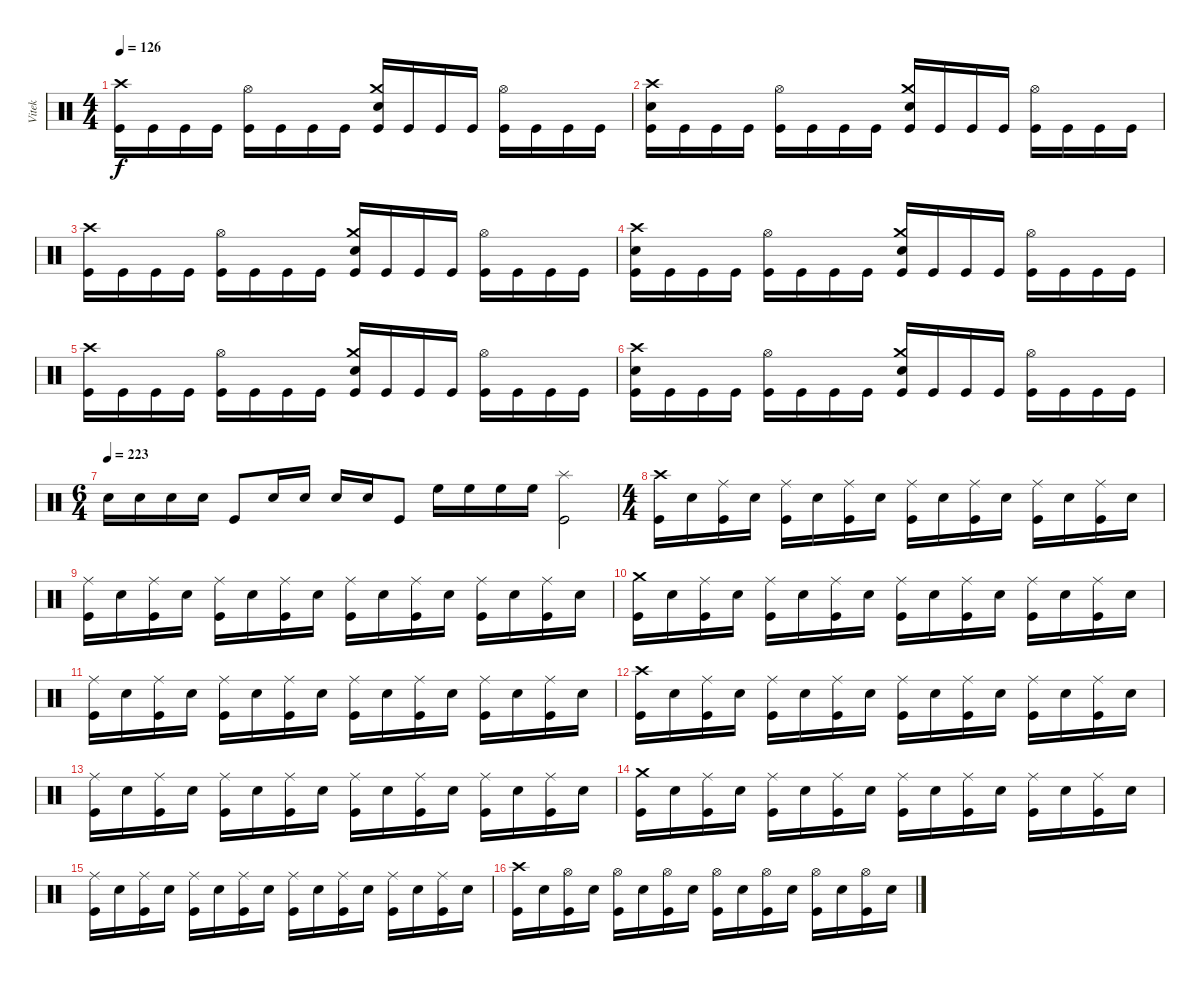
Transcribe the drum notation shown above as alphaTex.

\track ("Vitek" "Vitek") {instrument percussion}
\staff {score}
\articulation defaults
\ts (4 4)
\tempo 126
\clef neutral
\ks c
("Crash high (hit)" "Kick (hit)").16{dy f} "Kick (hit)".16 "Kick (hit)".16 "Kick (hit)".16 ("Hi-Hat (open)" "Kick (hit)").16 "Kick (hit)".16 "Kick (hit)".16 "Kick (hit)".16 ("Crash medium (hit)" "Snare (hit) 2" "Kick (hit)").16 "Kick (hit)".16 "Kick (hit)".16 "Kick (hit)".16 ("Hi-Hat (open)" "Kick (hit)").16 "Kick (hit)".16 "Kick (hit)".16 "Kick (hit)".16 |
("Crash high (hit)" "Snare (hit) 2" "Kick (hit)").16 "Kick (hit)".16 "Kick (hit)".16 "Kick (hit)".16 ("Hi-Hat (open)" "Kick (hit)").16 "Kick (hit)".16 "Kick (hit)".16 "Kick (hit)".16 ("Crash medium (hit)" "Snare (hit) 2" "Kick (hit)").16 "Kick (hit)".16 "Kick (hit)".16 "Kick (hit)".16 ("Hi-Hat (open)" "Kick (hit)").16 "Kick (hit)".16 "Kick (hit)".16 "Kick (hit)".16 |
("Crash high (hit)" "Kick (hit)").16 "Kick (hit)".16 "Kick (hit)".16 "Kick (hit)".16 ("Hi-Hat (open)" "Kick (hit)").16 "Kick (hit)".16 "Kick (hit)".16 "Kick (hit)".16 ("Crash medium (hit)" "Snare (hit) 2" "Kick (hit)").16 "Kick (hit)".16 "Kick (hit)".16 "Kick (hit)".16 ("Hi-Hat (open)" "Kick (hit)").16 "Kick (hit)".16 "Kick (hit)".16 "Kick (hit)".16 |
("Crash high (hit)" "Snare (hit) 2" "Kick (hit)").16 "Kick (hit)".16 "Kick (hit)".16 "Kick (hit)".16 ("Hi-Hat (open)" "Kick (hit)").16 "Kick (hit)".16 "Kick (hit)".16 "Kick (hit)".16 ("Crash medium (hit)" "Snare (hit) 2" "Kick (hit)").16 "Kick (hit)".16 "Kick (hit)".16 "Kick (hit)".16 ("Hi-Hat (open)" "Kick (hit)").16 "Kick (hit)".16 "Kick (hit)".16 "Kick (hit)".16 |
("Crash high (hit)" "Kick (hit)").16 "Kick (hit)".16 "Kick (hit)".16 "Kick (hit)".16 ("Hi-Hat (open)" "Kick (hit)").16 "Kick (hit)".16 "Kick (hit)".16 "Kick (hit)".16 ("Crash medium (hit)" "Snare (hit) 2" "Kick (hit)").16 "Kick (hit)".16 "Kick (hit)".16 "Kick (hit)".16 ("Hi-Hat (open)" "Kick (hit)").16 "Kick (hit)".16 "Kick (hit)".16 "Kick (hit)".16 |
("Crash high (hit)" "Snare (hit) 2" "Kick (hit)").16 "Kick (hit)".16 "Kick (hit)".16 "Kick (hit)".16 ("Hi-Hat (open)" "Kick (hit)").16 "Kick (hit)".16 "Kick (hit)".16 "Kick (hit)".16 ("Crash medium (hit)" "Snare (hit) 2" "Kick (hit)").16 "Kick (hit)".16 "Kick (hit)".16 "Kick (hit)".16 ("Hi-Hat (open)" "Kick (hit)").16 "Kick (hit)".16 "Kick (hit)".16 "Kick (hit)".16 |
\ts (6 4)
\tempo (223)
"Snare (hit) 2".16 "Snare (hit) 2".16 "Snare (hit) 2".16 "Snare (hit) 2".16 "Kick (hit)".8 "Snare (hit) 2".16 "Snare (hit) 2".16 "Snare (hit) 2".16 "Snare (hit) 2".16 "Kick (hit)".8 "High Floor Tom (hit)".16 "High Floor Tom (hit)".16 "High Floor Tom (hit)".16 "High Floor Tom (hit)".16 ("Splash (hit)" "Kick (hit)").2 |
\ts (4 4)
("Crash high (hit)" "Kick (hit)").16 "Snare (hit) 2".16 ("Ride (middle)" "Kick (hit)").16 "Snare (hit) 2".16 ("Ride (middle)" "Kick (hit)").16 "Snare (hit) 2".16 ("Ride (middle)" "Kick (hit)").16 "Snare (hit) 2".16 ("Ride (middle)" "Kick (hit)").16 "Snare (hit) 2".16 ("Ride (middle)" "Kick (hit)").16 "Snare (hit) 2".16 ("Ride (middle)" "Kick (hit)").16 "Snare (hit) 2".16 ("Ride (middle)" "Kick (hit)").16 "Snare (hit) 2".16 |
("Ride (middle)" "Kick (hit)").16 "Snare (hit) 2".16 ("Ride (middle)" "Kick (hit)").16 "Snare (hit) 2".16 ("Ride (middle)" "Kick (hit)").16 "Snare (hit) 2".16 ("Ride (middle)" "Kick (hit)").16 "Snare (hit) 2".16 ("Ride (middle)" "Kick (hit)").16 "Snare (hit) 2".16 ("Ride (middle)" "Kick (hit)").16 "Snare (hit) 2".16 ("Ride (middle)" "Kick (hit)").16 "Snare (hit) 2".16 ("Ride (middle)" "Kick (hit)").16 "Snare (hit) 2".16 |
("Crash medium (hit)" "Kick (hit)").16 "Snare (hit) 2".16 ("Ride (middle)" "Kick (hit)").16 "Snare (hit) 2".16 ("Ride (middle)" "Kick (hit)").16 "Snare (hit) 2".16 ("Ride (middle)" "Kick (hit)").16 "Snare (hit) 2".16 ("Ride (middle)" "Kick (hit)").16 "Snare (hit) 2".16 ("Ride (middle)" "Kick (hit)").16 "Snare (hit) 2".16 ("Ride (middle)" "Kick (hit)").16 "Snare (hit) 2".16 ("Ride (middle)" "Kick (hit)").16 "Snare (hit) 2".16 |
("Ride (middle)" "Kick (hit)").16 "Snare (hit) 2".16 ("Ride (middle)" "Kick (hit)").16 "Snare (hit) 2".16 ("Ride (middle)" "Kick (hit)").16 "Snare (hit) 2".16 ("Ride (middle)" "Kick (hit)").16 "Snare (hit) 2".16 ("Ride (middle)" "Kick (hit)").16 "Snare (hit) 2".16 ("Ride (middle)" "Kick (hit)").16 "Snare (hit) 2".16 ("Ride (middle)" "Kick (hit)").16 "Snare (hit) 2".16 ("Ride (middle)" "Kick (hit)").16 "Snare (hit) 2".16 |
("Crash high (hit)" "Kick (hit)").16 "Snare (hit) 2".16 ("Ride (middle)" "Kick (hit)").16 "Snare (hit) 2".16 ("Ride (middle)" "Kick (hit)").16 "Snare (hit) 2".16 ("Ride (middle)" "Kick (hit)").16 "Snare (hit) 2".16 ("Ride (middle)" "Kick (hit)").16 "Snare (hit) 2".16 ("Ride (middle)" "Kick (hit)").16 "Snare (hit) 2".16 ("Ride (middle)" "Kick (hit)").16 "Snare (hit) 2".16 ("Ride (middle)" "Kick (hit)").16 "Snare (hit) 2".16 |
("Ride (middle)" "Kick (hit)").16 "Snare (hit) 2".16 ("Ride (middle)" "Kick (hit)").16 "Snare (hit) 2".16 ("Ride (middle)" "Kick (hit)").16 "Snare (hit) 2".16 ("Ride (middle)" "Kick (hit)").16 "Snare (hit) 2".16 ("Ride (middle)" "Kick (hit)").16 "Snare (hit) 2".16 ("Ride (middle)" "Kick (hit)").16 "Snare (hit) 2".16 ("Ride (middle)" "Kick (hit)").16 "Snare (hit) 2".16 ("Ride (middle)" "Kick (hit)").16 "Snare (hit) 2".16 |
("Crash medium (hit)" "Kick (hit)").16 "Snare (hit) 2".16 ("Ride (middle)" "Kick (hit)").16 "Snare (hit) 2".16 ("Ride (middle)" "Kick (hit)").16 "Snare (hit) 2".16 ("Ride (middle)" "Kick (hit)").16 "Snare (hit) 2".16 ("Ride (middle)" "Kick (hit)").16 "Snare (hit) 2".16 ("Ride (middle)" "Kick (hit)").16 "Snare (hit) 2".16 ("Ride (middle)" "Kick (hit)").16 "Snare (hit) 2".16 ("Ride (middle)" "Kick (hit)").16 "Snare (hit) 2".16 |
("Ride (middle)" "Kick (hit)").16 "Snare (hit) 2".16 ("Ride (middle)" "Kick (hit)").16 "Snare (hit) 2".16 ("Ride (middle)" "Kick (hit)").16 "Snare (hit) 2".16 ("Ride (middle)" "Kick (hit)").16 "Snare (hit) 2".16 ("Ride (middle)" "Kick (hit)").16 "Snare (hit) 2".16 ("Ride (middle)" "Kick (hit)").16 "Snare (hit) 2".16 ("Ride (middle)" "Kick (hit)").16 "Snare (hit) 2".16 ("Ride (middle)" "Kick (hit)").16 "Snare (hit) 2".16 |
("Crash high (hit)" "Kick (hit)").16 "Snare (hit) 2".16 ("Hi-Hat (open)" "Kick (hit)").16 "Snare (hit) 2".16 ("Hi-Hat (open)" "Kick (hit)").16 "Snare (hit) 2".16 ("Hi-Hat (open)" "Kick (hit)").16 "Snare (hit) 2".16 ("Hi-Hat (open)" "Kick (hit)").16 "Snare (hit) 2".16 ("Hi-Hat (open)" "Kick (hit)").16 "Snare (hit) 2".16 ("Hi-Hat (open)" "Kick (hit)").16 "Snare (hit) 2".16 ("Hi-Hat (open)" "Kick (hit)").16 "Snare (hit) 2".16
